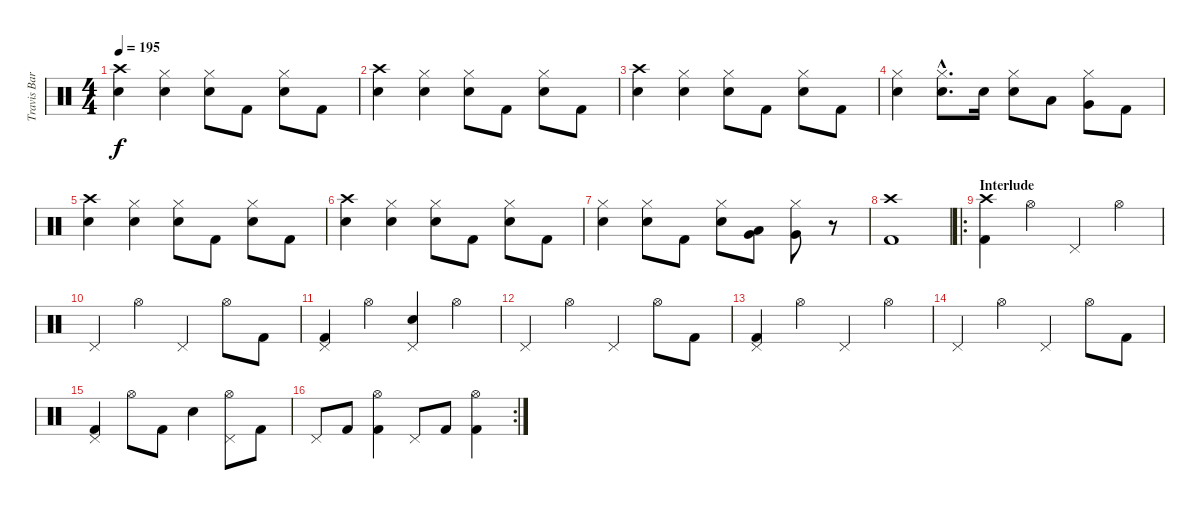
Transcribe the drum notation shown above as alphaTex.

\track ("Travis Barker (Schlagzeug)" "Travis Bar") {instrument percussion}
\staff {score}
\articulation defaults
\ts (4 4)
\tempo 195
\clef neutral
\ks c
("Crash high (hit)" "Electric Snare (hit)").4{dy f} ("Hi-Hat (closed)" "Electric Snare (hit)").4 ("Hi-Hat (closed)" "Electric Snare (hit)").8 "Kick (hit) 2".8 ("Hi-Hat (closed)" "Electric Snare (hit)").8 "Kick (hit) 2".8 |
("Crash high (hit)" "Electric Snare (hit)").4 ("Hi-Hat (closed)" "Electric Snare (hit)").4 ("Hi-Hat (closed)" "Electric Snare (hit)").8 "Kick (hit) 2".8 ("Hi-Hat (closed)" "Electric Snare (hit)").8 "Kick (hit) 2".8 |
("Crash high (hit)" "Electric Snare (hit)").4 ("Hi-Hat (closed)" "Electric Snare (hit)").4 ("Hi-Hat (closed)" "Electric Snare (hit)").8 "Kick (hit) 2".8 ("Hi-Hat (closed)" "Electric Snare (hit)").8 "Kick (hit) 2".8 |
("Hi-Hat (closed)" "Electric Snare (hit)").4 ("Hi-Hat (closed)"{hac} "Electric Snare (hit)"{hac}).8{d} "Electric Snare (hit)".16 ("Hi-Hat (closed)" "Electric Snare (hit)").8 "Low Tom (hit)".8 ("Very Low Tom (hit)" "Hi-Hat (closed)").8 "Kick (hit) 2".8 |
("Crash high (hit)" "Electric Snare (hit)").4 ("Hi-Hat (closed)" "Electric Snare (hit)").4 ("Hi-Hat (closed)" "Electric Snare (hit)").8 "Kick (hit) 2".8 ("Hi-Hat (closed)" "Electric Snare (hit)").8 "Kick (hit) 2".8 |
("Crash high (hit)" "Electric Snare (hit)").4 ("Hi-Hat (closed)" "Electric Snare (hit)").4 ("Hi-Hat (closed)" "Electric Snare (hit)").8 "Kick (hit) 2".8 ("Hi-Hat (closed)" "Electric Snare (hit)").8 "Kick (hit) 2".8 |
("Hi-Hat (closed)" "Electric Snare (hit)").4 ("Hi-Hat (closed)" "Electric Snare (hit)").8 "Kick (hit) 2".8 ("Hi-Hat (closed)" "Electric Snare (hit)").8 ("Low Tom (hit)" "Very Low Tom (hit)").8 ("Very Low Tom (hit)" "Hi-Hat (closed)").8 r.8 |
("Crash high (hit)" "Kick (hit) 2").1 |
\ro
\section ("" "Interlude")
("Crash high (hit)" "Kick (hit) 2").4 "Hi-Hat (open)".4 "Pedal Hi-Hat (hit)".4 "Hi-Hat (open)".4 |
"Pedal Hi-Hat (hit)".4 "Hi-Hat (open)".4 "Pedal Hi-Hat (hit)".4 "Hi-Hat (open)".8 "Kick (hit) 2".8 |
("Pedal Hi-Hat (hit)" "Kick (hit) 2").4 "Hi-Hat (open)".4 ("Pedal Hi-Hat (hit)" "Electric Snare (hit)").4 "Hi-Hat (open)".4 |
"Pedal Hi-Hat (hit)".4 "Hi-Hat (open)".4 "Pedal Hi-Hat (hit)".4 "Hi-Hat (open)".8 "Kick (hit) 2".8 |
("Pedal Hi-Hat (hit)" "Kick (hit) 2").4 "Hi-Hat (open)".4 "Pedal Hi-Hat (hit)".4 "Hi-Hat (open)".4 |
"Pedal Hi-Hat (hit)".4 "Hi-Hat (open)".4 "Pedal Hi-Hat (hit)".4 "Hi-Hat (open)".8 "Kick (hit) 2".8 |
("Pedal Hi-Hat (hit)" "Kick (hit) 2").4 "Hi-Hat (open)".8 "Kick (hit) 2".8 "Electric Snare (hit)".4 ("Pedal Hi-Hat (hit)" "Hi-Hat (open)").8 "Kick (hit) 2".8 |
\rc 2 "Pedal Hi-Hat (hit)".8 "Kick (hit) 2".8
("Hi-Hat (open)" "Kick (hit) 2").4 "Pedal Hi-Hat (hit)".8 "Kick (hit) 2".8 ("Hi-Hat (open)" "Kick (hit) 2").4
